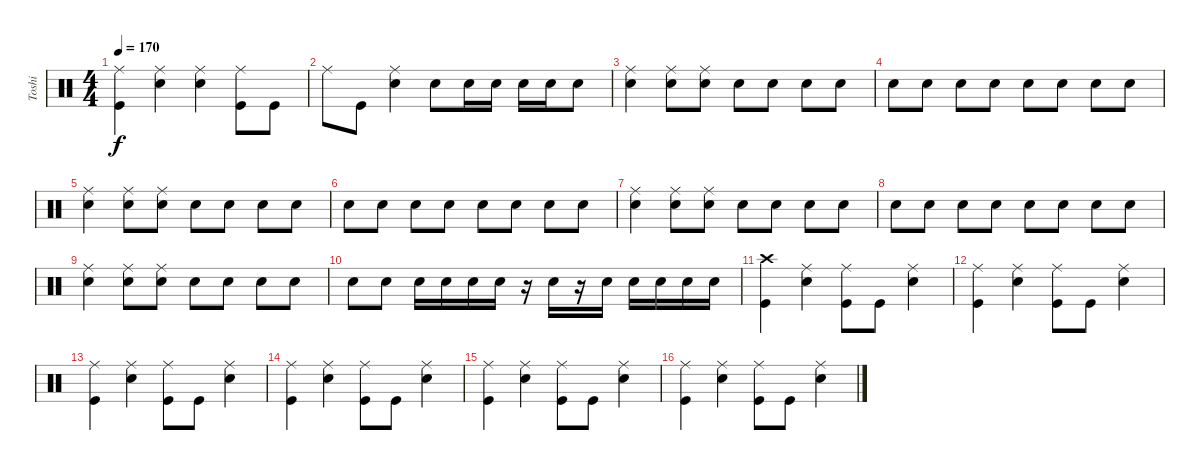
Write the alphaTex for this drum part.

\track ("Toshi" "Toshi") {instrument percussion}
\staff {score}
\articulation defaults
\ts (4 4)
\tempo 170
\clef neutral
\ks c
("Ride (middle)" "Kick (hit)").4{dy f} ("Ride (middle)" "Snare (hit) 2").4 ("Ride (middle)" "Snare (hit) 2").4 ("Ride (middle)" "Kick (hit)").8 "Kick (hit)".8 |
"Ride (middle)".8 "Kick (hit)".8 ("Ride (middle)" "Snare (hit) 2").4 "Snare (hit) 2".8 "Snare (hit) 2".16 "Snare (hit) 2".16 "Snare (hit) 2".16 "Snare (hit) 2".16 "Snare (hit) 2".8 |
("Ride (middle)" "Snare (hit) 2").4 ("Ride (middle)" "Snare (hit) 2").8 ("Ride (middle)" "Snare (hit) 2").8 "Snare (hit) 2".8 "Snare (hit) 2".8 "Snare (hit) 2".8 "Snare (hit) 2".8 |
"Snare (hit) 2".8 "Snare (hit) 2".8 "Snare (hit) 2".8 "Snare (hit) 2".8 "Snare (hit) 2".8 "Snare (hit) 2".8 "Snare (hit) 2".8 "Snare (hit) 2".8 |
("Ride (middle)" "Snare (hit) 2").4 ("Ride (middle)" "Snare (hit) 2").8 ("Ride (middle)" "Snare (hit) 2").8 "Snare (hit) 2".8 "Snare (hit) 2".8 "Snare (hit) 2".8 "Snare (hit) 2".8 |
"Snare (hit) 2".8 "Snare (hit) 2".8 "Snare (hit) 2".8 "Snare (hit) 2".8 "Snare (hit) 2".8 "Snare (hit) 2".8 "Snare (hit) 2".8 "Snare (hit) 2".8 |
("Ride (middle)" "Snare (hit) 2").4 ("Ride (middle)" "Snare (hit) 2").8 ("Ride (middle)" "Snare (hit) 2").8 "Snare (hit) 2".8 "Snare (hit) 2".8 "Snare (hit) 2".8 "Snare (hit) 2".8 |
"Snare (hit) 2".8 "Snare (hit) 2".8 "Snare (hit) 2".8 "Snare (hit) 2".8 "Snare (hit) 2".8 "Snare (hit) 2".8 "Snare (hit) 2".8 "Snare (hit) 2".8 |
("Ride (middle)" "Snare (hit) 2").4 ("Ride (middle)" "Snare (hit) 2").8 ("Ride (middle)" "Snare (hit) 2").8 "Snare (hit) 2".8 "Snare (hit) 2".8 "Snare (hit) 2".8 "Snare (hit) 2".8 |
"Snare (hit) 2".8 "Snare (hit) 2".8 "Snare (hit) 2".16 "Snare (hit) 2".16 "Snare (hit) 2".16 "Snare (hit) 2".16 r.16 "Snare (hit) 2".16 r.16 "Snare (hit) 2".16 "Snare (hit) 2".16 "Snare (hit) 2".16 "Snare (hit) 2".16 "Snare (hit) 2".16 |
("Crash high (hit)" "Kick (hit)").4 ("Ride (middle)" "Snare (hit) 2").4 ("Ride (middle)" "Kick (hit)").8 "Kick (hit)".8 ("Ride (middle)" "Snare (hit) 2").4 |
("Ride (middle)" "Kick (hit)").4 ("Ride (middle)" "Snare (hit) 2").4 ("Ride (middle)" "Kick (hit)").8 "Kick (hit)".8 ("Ride (middle)" "Snare (hit) 2").4 |
("Ride (middle)" "Kick (hit)").4 ("Ride (middle)" "Snare (hit) 2").4 ("Ride (middle)" "Kick (hit)").8 "Kick (hit)".8 ("Ride (middle)" "Snare (hit) 2").4 |
("Ride (middle)" "Kick (hit)").4 ("Ride (middle)" "Snare (hit) 2").4 ("Ride (middle)" "Kick (hit)").8 "Kick (hit)".8 ("Ride (middle)" "Snare (hit) 2").4 |
("Ride (middle)" "Kick (hit)").4 ("Ride (middle)" "Snare (hit) 2").4 ("Ride (middle)" "Kick (hit)").8 "Kick (hit)".8 ("Ride (middle)" "Snare (hit) 2").4 |
("Ride (middle)" "Kick (hit)").4 ("Ride (middle)" "Snare (hit) 2").4 ("Ride (middle)" "Kick (hit)").8 "Kick (hit)".8 ("Ride (middle)" "Snare (hit) 2").4
